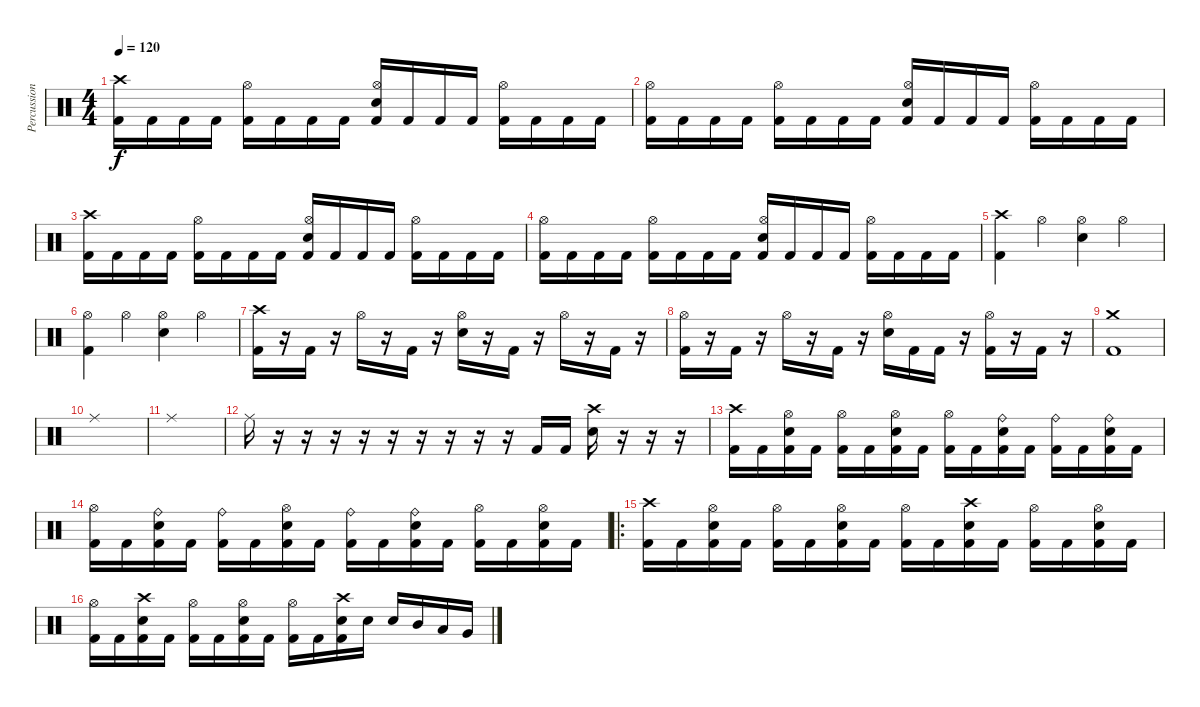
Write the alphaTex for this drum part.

\track ("Percussion" "Percussion") {instrument percussion}
\staff {score}
\articulation defaults
\ts (4 4)
\tempo 120
\clef neutral
\ks c
("Crash high (hit)" "Kick (hit) 2").16{dy f} "Kick (hit) 2".16 "Kick (hit) 2".16 "Kick (hit) 2".16 ("Hi-Hat (open)" "Kick (hit) 2").16 "Kick (hit) 2".16 "Kick (hit) 2".16 "Kick (hit) 2".16 ("Hi-Hat (open)" "Snare (hit) 2" "Kick (hit) 2").16 "Kick (hit) 2".16 "Kick (hit) 2".16 "Kick (hit) 2".16 ("Hi-Hat (open)" "Kick (hit) 2").16 "Kick (hit) 2".16 "Kick (hit) 2".16 "Kick (hit) 2".16 |
("Hi-Hat (open)" "Kick (hit) 2").16 "Kick (hit) 2".16 "Kick (hit) 2".16 "Kick (hit) 2".16 ("Hi-Hat (open)" "Kick (hit) 2").16 "Kick (hit) 2".16 "Kick (hit) 2".16 "Kick (hit) 2".16 ("Hi-Hat (open)" "Snare (hit) 2" "Kick (hit) 2").16 "Kick (hit) 2".16 "Kick (hit) 2".16 "Kick (hit) 2".16 ("Hi-Hat (open)" "Kick (hit) 2").16 "Kick (hit) 2".16 "Kick (hit) 2".16 "Kick (hit) 2".16 |
("Crash high (hit)" "Kick (hit) 2").16 "Kick (hit) 2".16 "Kick (hit) 2".16 "Kick (hit) 2".16 ("Hi-Hat (open)" "Kick (hit) 2").16 "Kick (hit) 2".16 "Kick (hit) 2".16 "Kick (hit) 2".16 ("Hi-Hat (open)" "Snare (hit) 2" "Kick (hit) 2").16 "Kick (hit) 2".16 "Kick (hit) 2".16 "Kick (hit) 2".16 ("Hi-Hat (open)" "Kick (hit) 2").16 "Kick (hit) 2".16 "Kick (hit) 2".16 "Kick (hit) 2".16 |
("Hi-Hat (open)" "Kick (hit) 2").16 "Kick (hit) 2".16 "Kick (hit) 2".16 "Kick (hit) 2".16 ("Hi-Hat (open)" "Kick (hit) 2").16 "Kick (hit) 2".16 "Kick (hit) 2".16 "Kick (hit) 2".16 ("Hi-Hat (open)" "Snare (hit) 2" "Kick (hit) 2").16 "Kick (hit) 2".16 "Kick (hit) 2".16 "Kick (hit) 2".16 ("Hi-Hat (open)" "Kick (hit) 2").16 "Kick (hit) 2".16 "Kick (hit) 2".16 "Kick (hit) 2".16 |
("Crash high (hit)" "Kick (hit) 2").4 "Hi-Hat (open)".4 ("Hi-Hat (open)" "Snare (hit) 2").4 "Hi-Hat (open)".4 |
("Hi-Hat (open)" "Kick (hit) 2").4 "Hi-Hat (open)".4 ("Hi-Hat (open)" "Snare (hit) 2").4 "Hi-Hat (open)".4 |
("Crash high (hit)" "Kick (hit) 2").16 r.16 "Kick (hit) 2".16 r.16 "Hi-Hat (open)".16 r.16 "Kick (hit) 2".16 r.16 ("Hi-Hat (open)" "Snare (hit) 2").16 r.16 "Kick (hit) 2".16 r.16 "Hi-Hat (open)".16 r.16 "Kick (hit) 2".16 r.16 |
("Hi-Hat (open)" "Kick (hit) 2").16 r.16 "Kick (hit) 2".16 r.16 "Hi-Hat (open)".16 r.16 "Kick (hit) 2".16 r.16 ("Hi-Hat (open)" "Snare (hit) 2").16 "Kick (hit) 2".16 "Kick (hit) 2".16 r.16 ("Hi-Hat (open)" "Kick (hit) 2").16 r.16 "Kick (hit) 2".16 r.16 |
("Crash medium (hit)" "Kick (hit) 2").1 |
"Ride (middle)".1 |
"Ride (middle)".1 |
"Ride (middle)".16 r.16 r.16 r.16 r.16 r.16 r.16 r.16 r.16 r.16 "Kick (hit) 2".16 "Kick (hit) 2".16 ("Crash high (hit)" "Snare (hit) 2").16 r.16 r.16 r.16 |
("Crash high (hit)" "Kick (hit) 2").16 "Kick (hit) 2".16 ("Hi-Hat (open)" "Snare (hit) 2" "Kick (hit) 2").16 "Kick (hit) 2".16 ("Hi-Hat (open)" "Kick (hit) 2").16 "Kick (hit) 2".16 ("Hi-Hat (open)" "Snare (hit) 2" "Kick (hit) 2").16 "Kick (hit) 2".16 ("Hi-Hat (open)" "Kick (hit) 2").16 "Kick (hit) 2".16 ("Ride (bell)" "Snare (hit) 2" "Kick (hit) 2").16 "Kick (hit) 2".16 ("Ride (bell)" "Kick (hit) 2").16 "Kick (hit) 2".16 ("Ride (bell)" "Snare (hit) 2" "Kick (hit) 2").16 "Kick (hit) 2".16 |
("Hi-Hat (open)" "Kick (hit) 2").16 "Kick (hit) 2".16 ("Ride (bell)" "Snare (hit) 2" "Kick (hit) 2").16 "Kick (hit) 2".16 ("Ride (bell)" "Kick (hit) 2").16 "Kick (hit) 2".16 ("Hi-Hat (open)" "Snare (hit) 2" "Kick (hit) 2").16 "Kick (hit) 2".16 ("Ride (bell)" "Kick (hit) 2").16 "Kick (hit) 2".16 ("Ride (bell)" "Snare (hit) 2" "Kick (hit) 2").16 "Kick (hit) 2".16 ("Hi-Hat (open)" "Kick (hit) 2").16 "Kick (hit) 2".16 ("Hi-Hat (open)" "Snare (hit) 2" "Kick (hit) 2").16 "Kick (hit) 2".16 |
\ro
("Crash high (hit)" "Kick (hit) 2").16 "Kick (hit) 2".16 ("Hi-Hat (open)" "Snare (hit) 2" "Kick (hit) 2").16 "Kick (hit) 2".16 ("Hi-Hat (open)" "Kick (hit) 2").16 "Kick (hit) 2".16 ("Hi-Hat (open)" "Snare (hit) 2" "Kick (hit) 2").16 "Kick (hit) 2".16 ("Hi-Hat (open)" "Kick (hit) 2").16 "Kick (hit) 2".16 ("Crash high (hit)" "Snare (hit) 2" "Kick (hit) 2").16 "Kick (hit) 2".16 ("Hi-Hat (open)" "Kick (hit) 2").16 "Kick (hit) 2".16 ("Hi-Hat (open)" "Snare (hit) 2" "Kick (hit) 2").16 "Kick (hit) 2".16 |
("Hi-Hat (open)" "Kick (hit) 2").16 "Kick (hit) 2".16 ("Crash high (hit)" "Snare (hit) 2" "Kick (hit) 2").16 "Kick (hit) 2".16 ("Hi-Hat (open)" "Kick (hit) 2").16 "Kick (hit) 2".16 ("Hi-Hat (open)" "Snare (hit) 2" "Kick (hit) 2").16 "Kick (hit) 2".16 ("Hi-Hat (open)" "Kick (hit) 2").16 "Kick (hit) 2".16 ("Crash high (hit)" "Snare (hit) 2" "Kick (hit) 2").16 "Snare (hit) 2".16 "Snare (hit) 2".16 "Mid Tom (hit)".16 "Low Tom (hit)".16 "Very Low Tom (hit)".16
